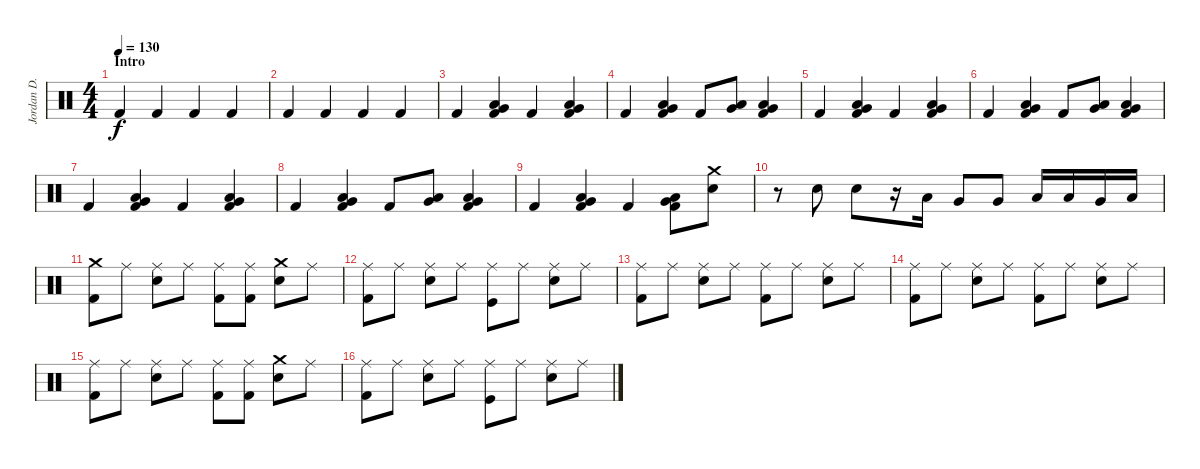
\track ("Jordan D. Samolesky" "Jordan D. ") {instrument percussion}
\staff {score}
\articulation defaults
\ts (4 4)
\section ("" "Intro")
\tempo 130
\clef neutral
\ks c "Kick (hit) 2".4{dy f} "Kick (hit) 2".4 "Kick (hit) 2".4 "Kick (hit) 2".4
|
"Kick (hit) 2".4 "Kick (hit) 2".4 "Kick (hit) 2".4 "Kick (hit) 2".4 |
"Kick (hit) 2".4 ("Very Low Tom (hit)" "Low Floor Tom (hit)" "Kick (hit) 2").4 "Kick (hit) 2".4 ("Very Low Tom (hit)" "Low Floor Tom (hit)" "Kick (hit) 2").4 |
"Kick (hit) 2".4 ("Very Low Tom (hit)" "Low Floor Tom (hit)" "Kick (hit) 2").4 "Kick (hit) 2".8 ("Very Low Tom (hit)" "Low Floor Tom (hit)").8 ("Very Low Tom (hit)" "Low Floor Tom (hit)" "Kick (hit) 2").4 |
"Kick (hit) 2".4 ("Very Low Tom (hit)" "Low Floor Tom (hit)" "Kick (hit) 2").4 "Kick (hit) 2".4 ("Very Low Tom (hit)" "Low Floor Tom (hit)" "Kick (hit) 2").4 |
"Kick (hit) 2".4 ("Very Low Tom (hit)" "Low Floor Tom (hit)" "Kick (hit) 2").4 "Kick (hit) 2".8 ("Very Low Tom (hit)" "Low Floor Tom (hit)").8 ("Very Low Tom (hit)" "Low Floor Tom (hit)" "Kick (hit) 2").4 |
"Kick (hit) 2".4 ("Very Low Tom (hit)" "Low Floor Tom (hit)" "Kick (hit) 2").4 "Kick (hit) 2".4 ("Very Low Tom (hit)" "Low Floor Tom (hit)" "Kick (hit) 2").4 |
"Kick (hit) 2".4 ("Very Low Tom (hit)" "Low Floor Tom (hit)" "Kick (hit) 2").4 "Kick (hit) 2".8 ("Very Low Tom (hit)" "Low Floor Tom (hit)").8 ("Very Low Tom (hit)" "Low Floor Tom (hit)" "Kick (hit) 2").4 |
"Kick (hit) 2".4 ("Very Low Tom (hit)" "Low Floor Tom (hit)" "Kick (hit) 2").4 "Kick (hit) 2".4 ("Very Low Tom (hit)" "Low Floor Tom (hit)" "Kick (hit) 2").8 ("Crash medium (hit)" "Electric Snare (hit)").8 |
r.8 "Electric Snare (hit)".8 "Electric Snare (hit)".8 r.16 "Low Tom (hit)".16 "Very Low Tom (hit)".8 "Very Low Tom (hit)".8 "Low Tom (hit)".16 "Low Tom (hit)".16 "Very Low Tom (hit)".16 "Low Floor Tom (hit)".16 |
("Crash medium (hit)" "Kick (hit) 2").8 "Ride (middle)".8 ("Electric Snare (hit)" "Ride (middle)").8 "Ride (middle)".8 ("Ride (middle)" "Kick (hit) 2").8 ("Ride (middle)" "Kick (hit) 2").8 ("Crash medium (hit)" "Electric Snare (hit)").8 "Ride (middle)".8 |
("Ride (middle)" "Kick (hit) 2").8 "Ride (middle)".8 ("Electric Snare (hit)" "Ride (middle)").8 "Ride (middle)".8 ("Ride (middle)" "Kick (hit)").8 "Ride (middle)".8 ("Electric Snare (hit)" "Ride (middle)").8 "Ride (middle)".8 |
("Ride (middle)" "Kick (hit) 2").8 "Ride (middle)".8 ("Electric Snare (hit)" "Ride (middle)").8 "Ride (middle)".8 ("Ride (middle)" "Kick (hit) 2").8 "Ride (middle)".8 ("Electric Snare (hit)" "Ride (middle)").8 "Ride (middle)".8 |
("Ride (middle)" "Kick (hit) 2").8 "Ride (middle)".8 ("Electric Snare (hit)" "Ride (middle)").8 "Ride (middle)".8 ("Ride (middle)" "Kick (hit) 2").8 "Ride (middle)".8 ("Electric Snare (hit)" "Ride (middle)").8 "Ride (middle)".8 |
("Ride (middle)" "Kick (hit) 2").8 "Ride (middle)".8 ("Electric Snare (hit)" "Ride (middle)").8 "Ride (middle)".8 ("Ride (middle)" "Kick (hit) 2").8 ("Ride (middle)" "Kick (hit) 2").8 ("Crash medium (hit)" "Electric Snare (hit)").8 "Ride (middle)".8 |
("Ride (middle)" "Kick (hit) 2").8 "Ride (middle)".8 ("Electric Snare (hit)" "Ride (middle)").8 "Ride (middle)".8 ("Ride (middle)" "Kick (hit)").8 "Ride (middle)".8 ("Electric Snare (hit)" "Ride (middle)").8 "Ride (middle)".8
